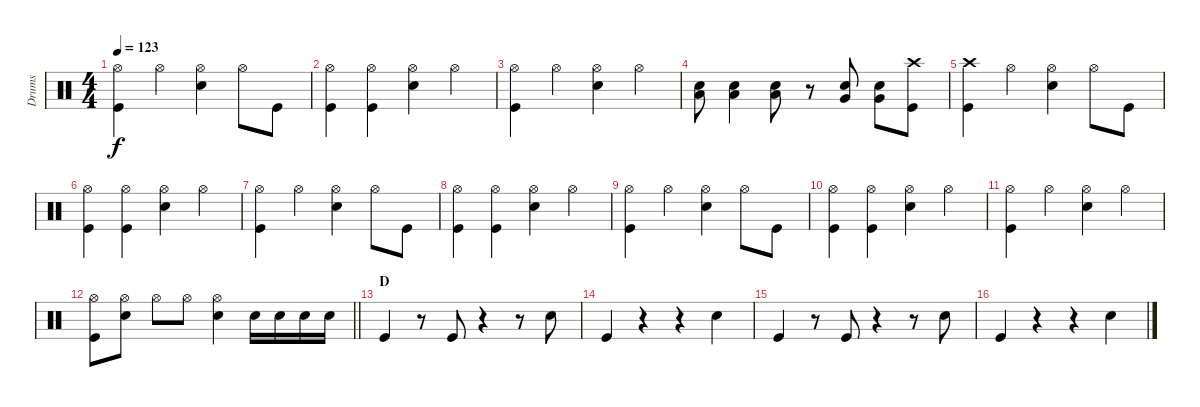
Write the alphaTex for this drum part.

\track ("Drums" "Drums") {instrument percussion}
\staff {score}
\articulation defaults
\ts (4 4)
\tempo 123
\clef neutral
\ks c
("Hi-Hat (open)" "Kick (hit)").4{dy f} "Hi-Hat (open)".4 ("Hi-Hat (open)" "Electric Snare (hit)").4 "Hi-Hat (open)".8 "Kick (hit)".8 |
("Hi-Hat (open)" "Kick (hit)").4 ("Hi-Hat (open)" "Kick (hit)").4 ("Hi-Hat (open)" "Electric Snare (hit)").4 "Hi-Hat (open)".4 |
("Hi-Hat (open)" "Kick (hit)").4 "Hi-Hat (open)".4 ("Hi-Hat (open)" "Electric Snare (hit)").4 "Hi-Hat (open)".4 |
("Electric Snare (hit)" "Low Tom (hit)").8 ("Electric Snare (hit)" "Low Tom (hit)").4 ("Electric Snare (hit)" "Low Tom (hit)").8 r.8 ("Electric Snare (hit)" "Very Low Tom (hit)").8 ("Electric Snare (hit)" "Very Low Tom (hit)").8 ("Crash high (hit)" "Kick (hit)").8 |
("Crash high (hit)" "Kick (hit)").4 "Hi-Hat (open)".4 ("Hi-Hat (open)" "Electric Snare (hit)").4 "Hi-Hat (open)".8 "Kick (hit)".8 |
("Hi-Hat (open)" "Kick (hit)").4 ("Hi-Hat (open)" "Kick (hit)").4 ("Hi-Hat (open)" "Electric Snare (hit)").4 "Hi-Hat (open)".4 |
("Hi-Hat (open)" "Kick (hit)").4 "Hi-Hat (open)".4 ("Hi-Hat (open)" "Electric Snare (hit)").4 "Hi-Hat (open)".8 "Kick (hit)".8 |
("Hi-Hat (open)" "Kick (hit)").4 ("Hi-Hat (open)" "Kick (hit)").4 ("Hi-Hat (open)" "Electric Snare (hit)").4 "Hi-Hat (open)".4 |
("Hi-Hat (open)" "Kick (hit)").4 "Hi-Hat (open)".4 ("Hi-Hat (open)" "Electric Snare (hit)").4 "Hi-Hat (open)".8 "Kick (hit)".8 |
("Hi-Hat (open)" "Kick (hit)").4 ("Hi-Hat (open)" "Kick (hit)").4 ("Hi-Hat (open)" "Electric Snare (hit)").4 "Hi-Hat (open)".4 |
("Hi-Hat (open)" "Kick (hit)").4 "Hi-Hat (open)".4 ("Hi-Hat (open)" "Electric Snare (hit)").4 "Hi-Hat (open)".4 |
\barLineRight lightlight
("Hi-Hat (open)" "Kick (hit)").8 ("Hi-Hat (open)" "Electric Snare (hit)").8 "Hi-Hat (open)".8 "Hi-Hat (open)".8 ("Hi-Hat (open)" "Electric Snare (hit)").4 "Electric Snare (hit)".16 "Electric Snare (hit)".16 "Electric Snare (hit)".16 "Electric Snare (hit)".16 |
\section ("" "D")
"Kick (hit)".4 r.8 "Kick (hit)".8 r.4 r.8 "Electric Snare (hit)".8 |
"Kick (hit)".4 r.4 r.4 "Electric Snare (hit)".4 |
"Kick (hit)".4 r.8 "Kick (hit)".8 r.4 r.8 "Electric Snare (hit)".8 |
"Kick (hit)".4 r.4 r.4 "Electric Snare (hit)".4
